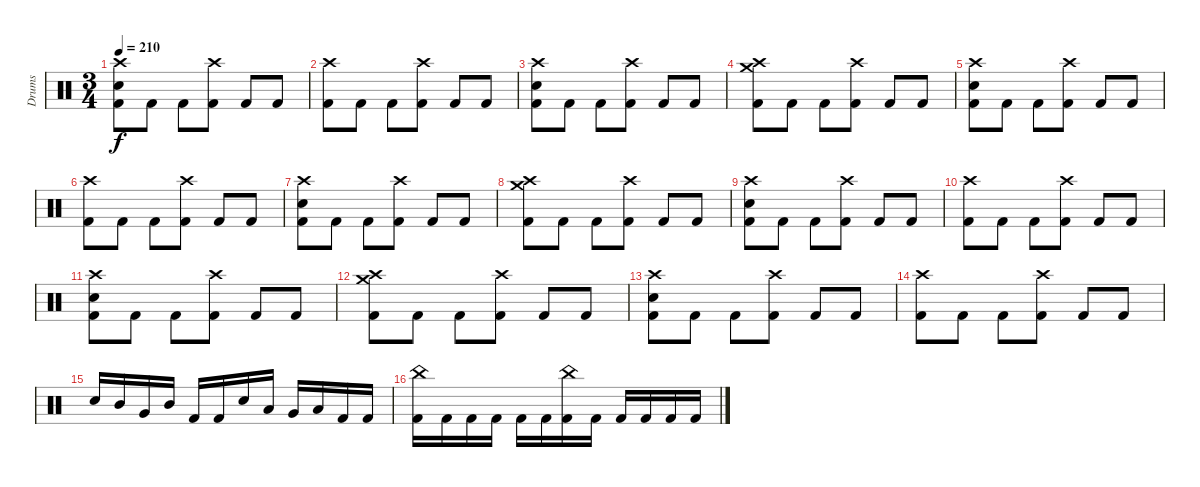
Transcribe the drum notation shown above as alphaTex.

\track ("Drums" "Drums") {instrument percussion}
\staff {score}
\articulation defaults
\ts (3 4)
\tempo 210
\clef neutral
\ks c
("Crash high (hit)" "Electric Snare (hit)" "Kick (hit) 2").8{dy f} "Kick (hit) 2".8 "Kick (hit) 2".8 ("Crash high (hit)" "Kick (hit) 2").8 "Kick (hit) 2".8 "Kick (hit) 2".8 |
("Crash high (hit)" "Kick (hit) 2").8 "Kick (hit) 2".8 "Kick (hit) 2".8 ("Crash high (hit)" "Kick (hit) 2").8 "Kick (hit) 2".8 "Kick (hit) 2".8 |
("Crash high (hit)" "Electric Snare (hit)" "Kick (hit) 2").8 "Kick (hit) 2".8 "Kick (hit) 2".8 ("Crash high (hit)" "Kick (hit) 2").8 "Kick (hit) 2".8 "Kick (hit) 2".8 |
("Crash high (hit)" "Crash medium (hit)" "Kick (hit) 2").8 "Kick (hit) 2".8 "Kick (hit) 2".8 ("Crash high (hit)" "Kick (hit) 2").8 "Kick (hit) 2".8 "Kick (hit) 2".8 |
("Crash high (hit)" "Electric Snare (hit)" "Kick (hit) 2").8{volume 5} "Kick (hit) 2".8 "Kick (hit) 2".8 ("Crash high (hit)" "Kick (hit) 2").8 "Kick (hit) 2".8 "Kick (hit) 2".8 |
("Crash high (hit)" "Kick (hit) 2").8 "Kick (hit) 2".8 "Kick (hit) 2".8 ("Crash high (hit)" "Kick (hit) 2").8 "Kick (hit) 2".8 "Kick (hit) 2".8 |
("Crash high (hit)" "Electric Snare (hit)" "Kick (hit) 2").8 "Kick (hit) 2".8 "Kick (hit) 2".8 ("Crash high (hit)" "Kick (hit) 2").8 "Kick (hit) 2".8 "Kick (hit) 2".8 |
("Crash high (hit)" "Crash medium (hit)" "Kick (hit) 2").8 "Kick (hit) 2".8 "Kick (hit) 2".8 ("Crash high (hit)" "Kick (hit) 2").8 "Kick (hit) 2".8 "Kick (hit) 2".8 |
("Crash high (hit)" "Electric Snare (hit)" "Kick (hit) 2").8 "Kick (hit) 2".8 "Kick (hit) 2".8 ("Crash high (hit)" "Kick (hit) 2").8 "Kick (hit) 2".8 "Kick (hit) 2".8 |
("Crash high (hit)" "Kick (hit) 2").8 "Kick (hit) 2".8 "Kick (hit) 2".8 ("Crash high (hit)" "Kick (hit) 2").8 "Kick (hit) 2".8 "Kick (hit) 2".8 |
("Crash high (hit)" "Electric Snare (hit)" "Kick (hit) 2").8 "Kick (hit) 2".8 "Kick (hit) 2".8 ("Crash high (hit)" "Kick (hit) 2").8{volume 4} "Kick (hit) 2".8 "Kick (hit) 2".8 |
("Crash high (hit)" "Crash medium (hit)" "Kick (hit) 2").8 "Kick (hit) 2".8 "Kick (hit) 2".8 ("Crash high (hit)" "Kick (hit) 2").8 "Kick (hit) 2".8 "Kick (hit) 2".8 |
("Crash high (hit)" "Electric Snare (hit)" "Kick (hit) 2").8 "Kick (hit) 2".8 "Kick (hit) 2".8 ("Crash high (hit)" "Kick (hit) 2").8 "Kick (hit) 2".8 "Kick (hit) 2".8 |
("Crash high (hit)" "Kick (hit) 2").8 "Kick (hit) 2".8 "Kick (hit) 2".8 ("Crash high (hit)" "Kick (hit) 2").8 "Kick (hit) 2".8 "Kick (hit) 2".8 |
"Electric Snare (hit)".16 "Mid Tom (hit)".16 "Very Low Tom (hit)".16 "Mid Tom (hit)".16 "Kick (hit) 2".16 "Kick (hit) 2".16 "Electric Snare (hit)".16 "Low Tom (hit)".16 "Very Low Tom (hit)".16 "Low Tom (hit)".16 "Kick (hit) 2".16 "Kick (hit) 2".16 |
("China (hit)" "Kick (hit) 2").16 "Kick (hit) 2".16 "Kick (hit) 2".16 "Kick (hit) 2".16 "Kick (hit) 2".16 "Kick (hit) 2".16 ("China (hit)" "Kick (hit) 2").16 "Kick (hit) 2".16 "Kick (hit) 2".16 "Kick (hit) 2".16 "Kick (hit) 2".16 "Kick (hit) 2".16
